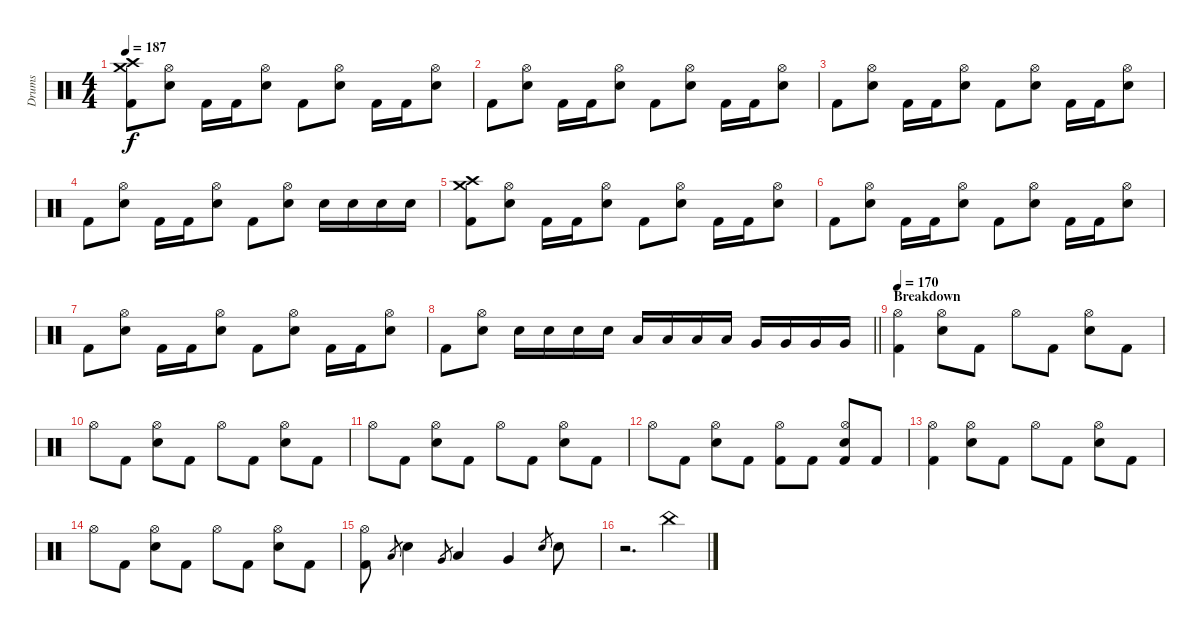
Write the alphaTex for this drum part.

\track ("Drums" "Drums") {instrument percussion}
\staff {score}
\articulation defaults
\ts (4 4)
\tempo 187
\clef neutral
\ks c
("Crash medium (hit)" "Crash high (hit)" "Kick (hit) 2").8{dy f} ("Hi-Hat (open)" "Electric Snare (hit)").8 "Kick (hit) 2".16 "Kick (hit) 2".16 ("Hi-Hat (open)" "Electric Snare (hit)").8 "Kick (hit) 2".8 ("Hi-Hat (open)" "Electric Snare (hit)").8 "Kick (hit) 2".16 "Kick (hit) 2".16 ("Hi-Hat (open)" "Electric Snare (hit)").8 |
"Kick (hit) 2".8 ("Hi-Hat (open)" "Electric Snare (hit)").8 "Kick (hit) 2".16 "Kick (hit) 2".16 ("Hi-Hat (open)" "Electric Snare (hit)").8 "Kick (hit) 2".8 ("Hi-Hat (open)" "Electric Snare (hit)").8 "Kick (hit) 2".16 "Kick (hit) 2".16 ("Hi-Hat (open)" "Electric Snare (hit)").8 |
"Kick (hit) 2".8 ("Hi-Hat (open)" "Electric Snare (hit)").8 "Kick (hit) 2".16 "Kick (hit) 2".16 ("Hi-Hat (open)" "Electric Snare (hit)").8 "Kick (hit) 2".8 ("Hi-Hat (open)" "Electric Snare (hit)").8 "Kick (hit) 2".16 "Kick (hit) 2".16 ("Hi-Hat (open)" "Electric Snare (hit)").8 |
"Kick (hit) 2".8 ("Hi-Hat (open)" "Electric Snare (hit)").8 "Kick (hit) 2".16 "Kick (hit) 2".16 ("Hi-Hat (open)" "Electric Snare (hit)").8 "Kick (hit) 2".8 ("Hi-Hat (open)" "Electric Snare (hit)").8 "Electric Snare (hit)".16 "Electric Snare (hit)".16 "Electric Snare (hit)".16 "Electric Snare (hit)".16 |
("Crash medium (hit)" "Crash high (hit)" "Kick (hit) 2").8 ("Hi-Hat (open)" "Electric Snare (hit)").8 "Kick (hit) 2".16 "Kick (hit) 2".16 ("Hi-Hat (open)" "Electric Snare (hit)").8 "Kick (hit) 2".8 ("Hi-Hat (open)" "Electric Snare (hit)").8 "Kick (hit) 2".16 "Kick (hit) 2".16 ("Hi-Hat (open)" "Electric Snare (hit)").8 |
"Kick (hit) 2".8 ("Hi-Hat (open)" "Electric Snare (hit)").8 "Kick (hit) 2".16 "Kick (hit) 2".16 ("Hi-Hat (open)" "Electric Snare (hit)").8 "Kick (hit) 2".8 ("Hi-Hat (open)" "Electric Snare (hit)").8 "Kick (hit) 2".16 "Kick (hit) 2".16 ("Hi-Hat (open)" "Electric Snare (hit)").8 |
"Kick (hit) 2".8 ("Hi-Hat (open)" "Electric Snare (hit)").8 "Kick (hit) 2".16 "Kick (hit) 2".16 ("Hi-Hat (open)" "Electric Snare (hit)").8 "Kick (hit) 2".8 ("Hi-Hat (open)" "Electric Snare (hit)").8 "Kick (hit) 2".16 "Kick (hit) 2".16 ("Hi-Hat (open)" "Electric Snare (hit)").8 |
\barLineRight lightlight "Kick (hit) 2".8
("Hi-Hat (open)" "Electric Snare (hit)").8 "Electric Snare (hit)".16 "Electric Snare (hit)".16 "Electric Snare (hit)".16 "Electric Snare (hit)".16 "Low Tom (hit)".16 "Low Tom (hit)".16 "Low Tom (hit)".16 "Low Tom (hit)".16 "Very Low Tom (hit)".16 "Very Low Tom (hit)".16 "Very Low Tom (hit)".16 "Very Low Tom (hit)".16 |
\section ("" "Breakdown")
\tempo 170
("Hi-Hat (open)" "Kick (hit) 2").4 ("Hi-Hat (open)" "Electric Snare (hit)").8 "Kick (hit) 2".8 "Hi-Hat (open)".8 "Kick (hit) 2".8 ("Hi-Hat (open)" "Electric Snare (hit)").8 "Kick (hit) 2".8 |
"Hi-Hat (open)".8 "Kick (hit) 2".8 ("Hi-Hat (open)" "Electric Snare (hit)").8 "Kick (hit) 2".8 "Hi-Hat (open)".8 "Kick (hit) 2".8 ("Hi-Hat (open)" "Electric Snare (hit)").8 "Kick (hit) 2".8 |
"Hi-Hat (open)".8 "Kick (hit) 2".8 ("Hi-Hat (open)" "Electric Snare (hit)").8 "Kick (hit) 2".8 "Hi-Hat (open)".8 "Kick (hit) 2".8 ("Hi-Hat (open)" "Electric Snare (hit)").8 "Kick (hit) 2".8 |
"Hi-Hat (open)".8 "Kick (hit) 2".8 ("Hi-Hat (open)" "Electric Snare (hit)").8 "Kick (hit) 2".8 ("Hi-Hat (open)" "Kick (hit) 2").8 "Kick (hit) 2".8 ("Hi-Hat (open)" "Electric Snare (hit)" "Kick (hit) 2").8 "Kick (hit) 2".8 |
("Hi-Hat (open)" "Kick (hit) 2").4 ("Hi-Hat (open)" "Electric Snare (hit)").8 "Kick (hit) 2".8 "Hi-Hat (open)".8 "Kick (hit) 2".8 ("Hi-Hat (open)" "Electric Snare (hit)").8 "Kick (hit) 2".8 |
"Hi-Hat (open)".8 "Kick (hit) 2".8 ("Hi-Hat (open)" "Electric Snare (hit)").8 "Kick (hit) 2".8 "Hi-Hat (open)".8 "Kick (hit) 2".8 ("Hi-Hat (open)" "Electric Snare (hit)").8 "Kick (hit) 2".8 |
("Hi-Hat (open)" "Kick (hit) 2").8 "Low Tom (hit)".8{gr} "Electric Snare (hit)".4 "Very Low Tom (hit)".8{gr} "Low Tom (hit)".4 "Very Low Tom (hit)".4 "Electric Snare (hit)".8{gr} "Electric Snare (hit)".8 |
r.2{d} "China (hit)".4
